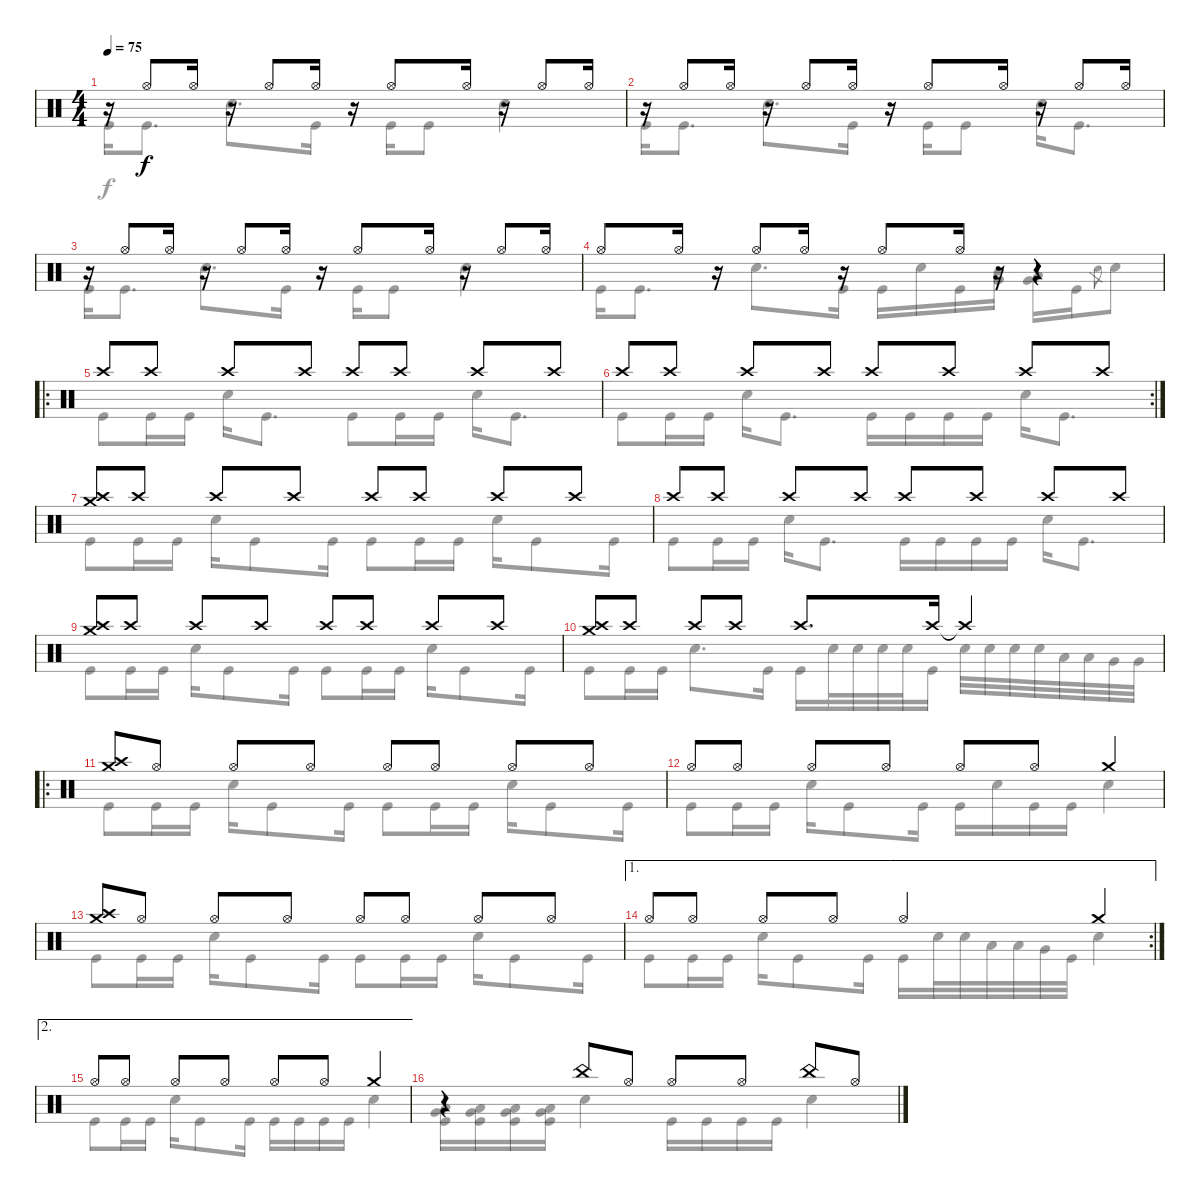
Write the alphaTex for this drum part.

\track "" {instrument percussion}
\staff {score}
\articulation defaults
\voice
\ts (4 4)
\tempo 75
\clef neutral
\ks c
r.16{dy f} "Hi-Hat (open)".8 "Hi-Hat (open)".16 r.16 "Hi-Hat (open)".8 "Hi-Hat (open)".16 r.16 "Hi-Hat (open)".8 "Hi-Hat (open)".16 r.16 "Hi-Hat (open)".8 "Hi-Hat (open)".16 |
r.16 "Hi-Hat (open)".8 "Hi-Hat (open)".16 r.16 "Hi-Hat (open)".8 "Hi-Hat (open)".16 r.16 "Hi-Hat (open)".8 "Hi-Hat (open)".16 r.16 "Hi-Hat (open)".8 "Hi-Hat (open)".16 |
r.16 "Hi-Hat (open)".8 "Hi-Hat (open)".16 r.16 "Hi-Hat (open)".8 "Hi-Hat (open)".16 r.16 "Hi-Hat (open)".8 "Hi-Hat (open)".16 r.16 "Hi-Hat (open)".8 "Hi-Hat (open)".16 |
"Hi-Hat (open)".8 "Hi-Hat (open)".16 r.16 "Hi-Hat (open)".8 "Hi-Hat (open)".16 r.16 "Hi-Hat (open)".8 "Hi-Hat (open)".16 r.16 r.4 |
\ro "Crash high (hit)".8 "Crash high (hit)".8 "Crash high (hit)".8 "Crash high (hit)".8 "Crash high (hit)".8 "Crash high (hit)".8 "Crash high (hit)".8 "Crash high (hit)".8
|
\rc 2 "Crash high (hit)".8 "Crash high (hit)".8 "Crash high (hit)".8 "Crash high (hit)".8 "Crash high (hit)".8 "Crash high (hit)".8 "Crash high (hit)".8 "Crash high (hit)".8
|
("Crash medium (hit)" "Crash high (hit)").8 "Crash high (hit)".8 "Crash high (hit)".8 "Crash high (hit)".8 "Crash high (hit)".8 "Crash high (hit)".8 "Crash high (hit)".8 "Crash high (hit)".8 |
"Crash high (hit)".8 "Crash high (hit)".8 "Crash high (hit)".8 "Crash high (hit)".8 "Crash high (hit)".8 "Crash high (hit)".8 "Crash high (hit)".8 "Crash high (hit)".8 |
("Crash medium (hit)" "Crash high (hit)").8 "Crash high (hit)".8 "Crash high (hit)".8 "Crash high (hit)".8 "Crash high (hit)".8 "Crash high (hit)".8 "Crash high (hit)".8 "Crash high (hit)".8 |
("Crash high (hit)" "Crash medium (hit)").8 "Crash high (hit)".8 "Crash high (hit)".8 "Crash high (hit)".8 "Crash high (hit)".8{d} "Crash high (hit)".16 "Crash high (hit)"{t}.4 |
\ro
("Crash medium (hit)" "Crash high (hit)").8 "Hi-Hat (open)".8 "Hi-Hat (open)".8 "Hi-Hat (open)".8 "Hi-Hat (open)".8 "Hi-Hat (open)".8 "Hi-Hat (open)".8 "Hi-Hat (open)".8 |
"Hi-Hat (open)".8 "Hi-Hat (open)".8 "Hi-Hat (open)".8 "Hi-Hat (open)".8 "Hi-Hat (open)".8 "Hi-Hat (open)".8 "Crash medium (hit)".4 |
("Crash medium (hit)" "Crash high (hit)").8 "Hi-Hat (open)".8 "Hi-Hat (open)".8 "Hi-Hat (open)".8 "Hi-Hat (open)".8 "Hi-Hat (open)".8 "Hi-Hat (open)".8 "Hi-Hat (open)".8 |
\ae 1
\rc 2 "Hi-Hat (open)".8 "Hi-Hat (open)".8 "Hi-Hat (open)".8 "Hi-Hat (open)".8 "Hi-Hat (open)".4 "Crash medium (hit)".4
|
\ae 2 "Hi-Hat (open)".8 "Hi-Hat (open)".8 "Hi-Hat (open)".8 "Hi-Hat (open)".8 "Hi-Hat (open)".8 "Hi-Hat (open)".8 "Crash medium (hit)".4
|
r.4 "China (hit)".8 "Hi-Hat (open)".8 "Hi-Hat (open)".8 "Hi-Hat (open)".8 "China (hit)".8 "Hi-Hat (open)".8
\voice
\clef neutral
\ottava regular
\simile none
\ks c "Kick (hit)".16{dy f} "Kick (hit)".8{d} "Snare (hit) 2".8{d} "Kick (hit)".16
r.16 "Kick (hit)".16 "Kick (hit)".8 "Snare (hit) 2".4 |
"Kick (hit)".16 "Kick (hit)".8{d} "Snare (hit) 2".8{d} "Kick (hit)".16 r.16 "Kick (hit)".16 "Kick (hit)".8 "Snare (hit) 2".16 "Kick (hit)".8{d} |
"Kick (hit)".16 "Kick (hit)".8{d} "Snare (hit) 2".8{d} "Kick (hit)".16 r.16 "Kick (hit)".16 "Kick (hit)".8 "Snare (hit) 2".4 |
"Kick (hit)".16 "Kick (hit)".8{d} "Snare (hit) 2".8{d} "Kick (hit)".16 "Kick (hit)".16 "Snare (hit) 2".16 "Kick (hit)".16 ("Mid Tom (hit)" "Very Low Tom (hit)").16 ("Low Tom (hit)" "Very Low Tom (hit)").16 "Kick (hit)".16 "Snare (hit) 2".8{gr} "Snare (hit) 2".8 |
"Kick (hit)".8 "Kick (hit)".16 "Kick (hit)".16 "Snare (hit) 2".16 "Kick (hit)".8{d} "Kick (hit)".8 "Kick (hit)".16 "Kick (hit)".16 "Snare (hit) 2".16 "Kick (hit)".8{d} |
"Kick (hit)".8 "Kick (hit)".16 "Kick (hit)".16 "Snare (hit) 2".16 "Kick (hit)".8{d} "Kick (hit)".16 "Kick (hit)".16 "Kick (hit)".16 "Kick (hit)".16 "Snare (hit) 2".16 "Kick (hit)".8{d} |
"Kick (hit)".8 "Kick (hit)".16 "Kick (hit)".16 "Snare (hit) 2".16 "Kick (hit)".8 "Kick (hit)".16 "Kick (hit)".8 "Kick (hit)".16 "Kick (hit)".16 "Snare (hit) 2".16 "Kick (hit)".8 "Kick (hit)".16 |
"Kick (hit)".8 "Kick (hit)".16 "Kick (hit)".16 "Snare (hit) 2".16 "Kick (hit)".8{d} "Kick (hit)".16 "Kick (hit)".16 "Kick (hit)".16 "Kick (hit)".16 "Snare (hit) 2".16 "Kick (hit)".8{d} |
"Kick (hit)".8 "Kick (hit)".16 "Kick (hit)".16 "Snare (hit) 2".16 "Kick (hit)".8 "Kick (hit)".16 "Kick (hit)".8 "Kick (hit)".16 "Kick (hit)".16 "Snare (hit) 2".16 "Kick (hit)".8 "Kick (hit)".16 |
"Kick (hit)".8 "Kick (hit)".16 "Kick (hit)".16 "Snare (hit) 2".8{d} "Kick (hit)".16 "Kick (hit)".16 "Snare (hit) 2".32 "Snare (hit) 2".32 "Snare (hit) 2".32 "Snare (hit) 2".32 "Kick (hit)".16 "Snare (hit) 2".32 "Snare (hit) 2".32 "Snare (hit) 2".32 "Snare (hit) 2".32 "Low Tom (hit)".32 "Low Tom (hit)".32 "Very Low Tom (hit)".32 "Very Low Tom (hit)".32 |
"Kick (hit)".8 "Kick (hit)".16 "Kick (hit)".16 "Snare (hit) 2".16 "Kick (hit)".8 "Kick (hit)".16 "Kick (hit)".8 "Kick (hit)".16 "Kick (hit)".16 "Snare (hit) 2".16 "Kick (hit)".8 "Kick (hit)".16 |
"Kick (hit)".8 "Kick (hit)".16 "Kick (hit)".16 "Snare (hit) 2".16 "Kick (hit)".8 "Kick (hit)".16 "Kick (hit)".16 "Snare (hit) 2".16 "Kick (hit)".16 "Kick (hit)".16 "Snare (hit) 2".4 |
"Kick (hit)".8 "Kick (hit)".16 "Kick (hit)".16 "Snare (hit) 2".16 "Kick (hit)".8 "Kick (hit)".16 "Kick (hit)".8 "Kick (hit)".16 "Kick (hit)".16 "Snare (hit) 2".16 "Kick (hit)".8 "Kick (hit)".16 |
"Kick (hit)".8 "Kick (hit)".16 "Kick (hit)".16 "Snare (hit) 2".16 "Kick (hit)".8 "Kick (hit)".16 "Kick (hit)".16 "Snare (hit) 2".32 "Snare (hit) 2".32 "Low Tom (hit)".32 "Low Tom (hit)".32 "Very Low Tom (hit)".32 "Kick (hit)".32 "Snare (hit) 2".4 |
"Kick (hit)".8 "Kick (hit)".16 "Kick (hit)".16 "Snare (hit) 2".16 "Kick (hit)".8 "Kick (hit)".16 "Kick (hit)".16 "Kick (hit)".16 "Kick (hit)".16 "Kick (hit)".16 "Snare (hit) 2".4 |
("Low Tom (hit)" "Very Low Tom (hit)" "Kick (hit)").16 ("Low Tom (hit)" "Very Low Tom (hit)" "Kick (hit)").16 ("Low Tom (hit)" "Very Low Tom (hit)" "Kick (hit)").16 ("Low Tom (hit)" "Very Low Tom (hit)" "Kick (hit)").16 "Snare (hit) 2".4 "Kick (hit)".16 "Kick (hit)".16 "Kick (hit)".16 "Kick (hit)".16 "Snare (hit) 2".4
